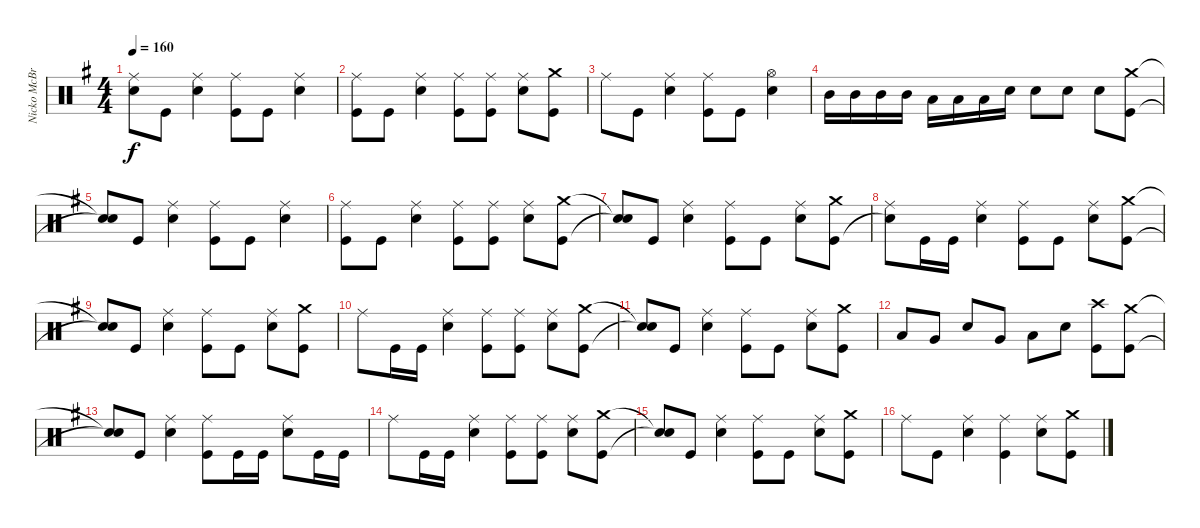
\track ("Nicko McBrain" "Nicko McBr") {instrument percussion}
\staff {score}
\articulation defaults
\ts (4 4)
\tempo 160
\clef neutral
\ks g
("Snare (hit)"{t} "Ride (middle)"{t}).8{dy f} "Kick (hit)".8 ("Electric Snare (hit)" "Ride (middle)").4 ("Kick (hit)" "Ride (middle)").8 "Kick (hit)".8 ("Electric Snare (hit)" "Ride (middle)").4 |
("Kick (hit)" "Ride (middle)").8 "Kick (hit)".8 ("Electric Snare (hit)" "Ride (middle)").4 ("Kick (hit)" "Ride (middle)").8 ("Kick (hit)" "Ride (middle)").8 ("Electric Snare (hit)" "Ride (middle)").8 ("Kick (hit)" "Crash medium (hit)").8 |
"Ride (middle)".8 "Kick (hit)".8 ("Electric Snare (hit)" "Ride (middle)").4 ("Kick (hit)" "Ride (middle)").8 "Kick (hit)".8 ("Electric Snare (hit)" "Hi-Hat (open)").4 |
"Mid Tom (hit)".16 "Mid Tom (hit)".16 "Mid Tom (hit)".16 "Mid Tom (hit)".16 "Low Tom (hit)".16 "Low Tom (hit)".16 "Low Tom (hit)".16 "Electric Snare (hit)".16 "Electric Snare (hit)".8 "Electric Snare (hit)".8 "Electric Snare (hit)".8 ("Kick (hit)" "Crash medium (hit)").8 |
("Snare (hit)"{t} "Snare (hit)"{t}).8 "Kick (hit)".8 ("Electric Snare (hit)" "Ride (middle)").4 ("Kick (hit)" "Ride (middle)").8 "Kick (hit)".8 ("Electric Snare (hit)" "Ride (middle)").4 |
("Kick (hit)" "Ride (middle)").8 "Kick (hit)".8 ("Electric Snare (hit)" "Ride (middle)").4 ("Kick (hit)" "Ride (middle)").8 ("Kick (hit)" "Ride (middle)").8 ("Electric Snare (hit)" "Ride (middle)").8 ("Kick (hit)" "Crash medium (hit)").8 |
("Snare (hit)"{t} "Snare (hit)"{t}).8 "Kick (hit)".8 ("Electric Snare (hit)" "Ride (middle)").4 ("Kick (hit)" "Ride (middle)").8 "Kick (hit)".8 ("Electric Snare (hit)" "Ride (middle)").8 ("Kick (hit)" "Crash medium (hit)").8 |
("Snare (hit)"{t} "Ride (middle)").8 "Kick (hit)".16 "Kick (hit)".16 ("Electric Snare (hit)" "Ride (middle)").4 ("Kick (hit)" "Ride (middle)").8 "Kick (hit)".8 ("Electric Snare (hit)" "Ride (middle)").8 ("Kick (hit)" "Crash medium (hit)").8 |
("Snare (hit)"{t} "Snare (hit)"{t}).8 "Kick (hit)".8 ("Electric Snare (hit)" "Ride (middle)").4 ("Kick (hit)" "Ride (middle)").8 "Kick (hit)".8 ("Electric Snare (hit)" "Ride (middle)").8 ("Kick (hit)" "Crash medium (hit)").8 |
"Ride (middle)".8 "Kick (hit)".16 "Kick (hit)".16 ("Electric Snare (hit)" "Ride (middle)").4 ("Kick (hit)" "Ride (middle)").8 ("Kick (hit)" "Ride (middle)").8 ("Electric Snare (hit)" "Ride (middle)").8 ("Kick (hit)" "Crash medium (hit)").8 |
("Snare (hit)"{t} "Snare (hit)"{t}).8 "Kick (hit)".8 ("Electric Snare (hit)" "Ride (middle)").4 ("Kick (hit)" "Ride (middle)").8 "Kick (hit)".8 ("Electric Snare (hit)" "Ride (middle)").8 ("Kick (hit)" "Crash medium (hit)").8 |
"Low Tom (hit)".8 "Very Low Tom (hit)".8 "Electric Snare (hit)".8 "Very Low Tom (hit)".8 "Low Floor Tom (hit)".8 "Electric Snare (hit)".8 ("Kick (hit)" "Crash high (hit)").8 ("Kick (hit)" "Crash medium (hit)").8 |
("Snare (hit)"{t} "Snare (hit)"{t}).8 "Kick (hit)".8 ("Electric Snare (hit)" "Ride (middle)").4 ("Kick (hit)" "Ride (middle)").8 "Kick (hit)".16 "Kick (hit)".16 ("Electric Snare (hit)" "Ride (middle)").8 "Kick (hit)".16 "Kick (hit)".16 |
"Ride (middle)".8 "Kick (hit)".16 "Kick (hit)".16 ("Electric Snare (hit)" "Ride (middle)").4 ("Kick (hit)" "Ride (middle)").8 ("Kick (hit)" "Ride (middle)").8 ("Electric Snare (hit)" "Ride (middle)").8 ("Kick (hit)" "Crash medium (hit)").8 |
("Snare (hit)"{t} "Snare (hit)"{t}).8 "Kick (hit)".8 ("Electric Snare (hit)" "Ride (middle)").4 ("Kick (hit)" "Ride (middle)").8 "Kick (hit)".8 ("Electric Snare (hit)" "Ride (middle)").8 ("Kick (hit)" "Crash medium (hit)").8 |
"Ride (middle)".8 "Kick (hit)".8 ("Electric Snare (hit)" "Ride (middle)").4 ("Kick (hit)" "Ride (middle)").4 ("Electric Snare (hit)" "Ride (middle)").8 ("Kick (hit)" "Crash medium (hit)").8
